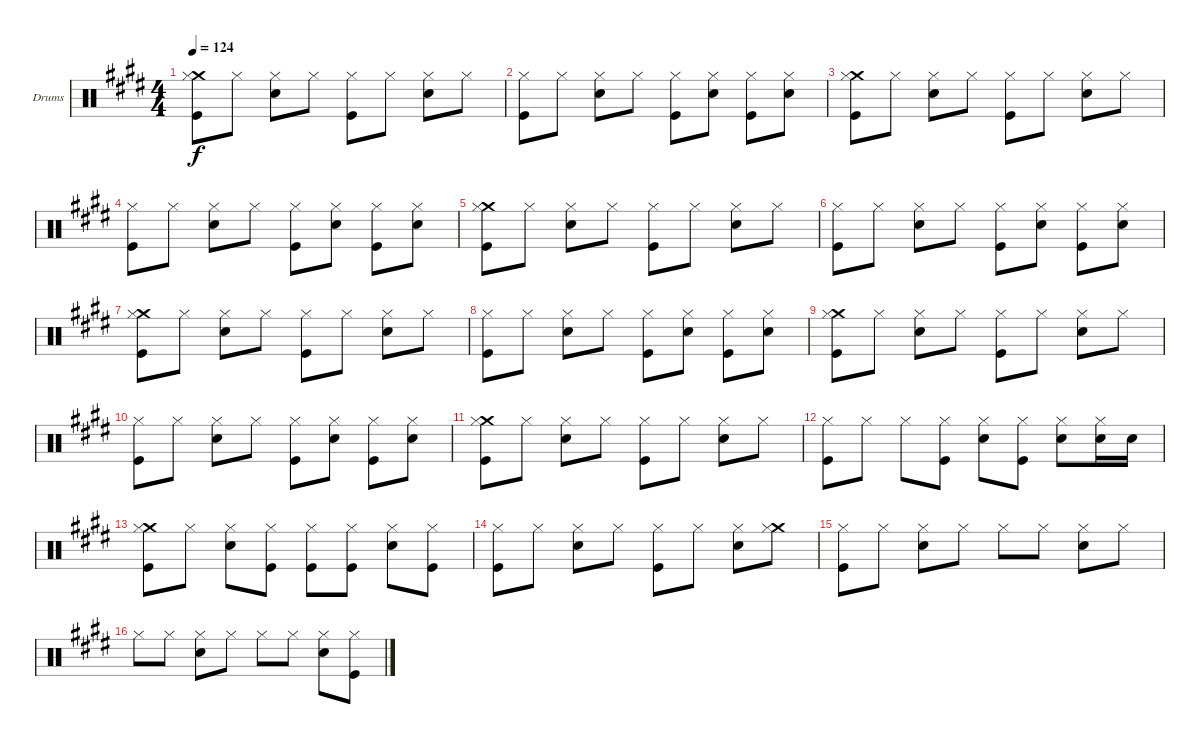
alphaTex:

\defaultSystemsLayout 4
\bracketExtendMode groupsimilarinstruments
\firstSystemTrackNameOrientation horizontal
\otherSystemsTrackNameOrientation horizontal
\track ("Drumkit" "Drums") {instrument percussion}
\staff {score}
\articulation defaults
\ts (4 4)
\tempo 124
\clef neutral
\scale
1.06557
\ks e
("Crash medium (hit)" "Hi-Hat (closed)" "Kick (hit)").8{dy f} "Hi-Hat (closed)".8 ("Hi-Hat (closed)" "Snare (hit) 2").8 "Hi-Hat (closed)".8 ("Hi-Hat (closed)" "Kick (hit)").8 "Hi-Hat (closed)".8 ("Hi-Hat (closed)" "Snare (hit) 2").8 "Hi-Hat (closed)".8 |
\scale
0.934426 ("Hi-Hat (closed)" "Kick (hit)").8 "Hi-Hat (closed)".8 ("Hi-Hat (closed)" "Snare (hit) 2").8 "Hi-Hat (closed)".8 ("Hi-Hat (closed)" "Kick (hit)").8 ("Hi-Hat (closed)" "Snare (hit) 2").8 ("Hi-Hat (closed)" "Kick (hit)").8 ("Hi-Hat (closed)" "Snare (hit) 2").8 |
\scale
1.06557 ("Crash medium (hit)" "Hi-Hat (closed)" "Kick (hit)").8 "Hi-Hat (closed)".8 ("Hi-Hat (closed)" "Snare (hit) 2").8 "Hi-Hat (closed)".8 ("Hi-Hat (closed)" "Kick (hit)").8 "Hi-Hat (closed)".8 ("Hi-Hat (closed)" "Snare (hit) 2").8 "Hi-Hat (closed)".8 |
\scale
0.934426 ("Hi-Hat (closed)" "Kick (hit)").8 "Hi-Hat (closed)".8 ("Hi-Hat (closed)" "Snare (hit) 2").8 "Hi-Hat (closed)".8 ("Hi-Hat (closed)" "Kick (hit)").8 ("Hi-Hat (closed)" "Snare (hit) 2").8 ("Hi-Hat (closed)" "Kick (hit)").8 ("Hi-Hat (closed)" "Snare (hit) 2").8 |
\scale
1.06557 ("Crash medium (hit)" "Hi-Hat (closed)" "Kick (hit)").8 "Hi-Hat (closed)".8 ("Hi-Hat (closed)" "Snare (hit) 2").8 "Hi-Hat (closed)".8 ("Hi-Hat (closed)" "Kick (hit)").8 "Hi-Hat (closed)".8 ("Hi-Hat (closed)" "Snare (hit) 2").8 "Hi-Hat (closed)".8 |
\scale
0.934426 ("Hi-Hat (closed)" "Kick (hit)").8 "Hi-Hat (closed)".8 ("Hi-Hat (closed)" "Snare (hit) 2").8 "Hi-Hat (closed)".8 ("Hi-Hat (closed)" "Kick (hit)").8 ("Hi-Hat (closed)" "Snare (hit) 2").8 ("Hi-Hat (closed)" "Kick (hit)").8 ("Hi-Hat (closed)" "Snare (hit) 2").8 |
\scale
1.06557 ("Crash medium (hit)" "Hi-Hat (closed)" "Kick (hit)").8 "Hi-Hat (closed)".8 ("Hi-Hat (closed)" "Snare (hit) 2").8 "Hi-Hat (closed)".8 ("Hi-Hat (closed)" "Kick (hit)").8 "Hi-Hat (closed)".8 ("Hi-Hat (closed)" "Snare (hit) 2").8 "Hi-Hat (closed)".8 |
\scale
0.934426 ("Hi-Hat (closed)" "Kick (hit)").8 "Hi-Hat (closed)".8 ("Hi-Hat (closed)" "Snare (hit) 2").8 "Hi-Hat (closed)".8 ("Hi-Hat (closed)" "Kick (hit)").8 ("Hi-Hat (closed)" "Snare (hit) 2").8 ("Hi-Hat (closed)" "Kick (hit)").8 ("Hi-Hat (closed)" "Snare (hit) 2").8 |
\scale
1.06557 ("Crash medium (hit)" "Hi-Hat (closed)" "Kick (hit)").8 "Hi-Hat (closed)".8 ("Hi-Hat (closed)" "Snare (hit) 2").8 "Hi-Hat (closed)".8 ("Hi-Hat (closed)" "Kick (hit)").8 "Hi-Hat (closed)".8 ("Hi-Hat (closed)" "Snare (hit) 2").8 "Hi-Hat (closed)".8 |
\scale
0.934426 ("Hi-Hat (closed)" "Kick (hit)").8 "Hi-Hat (closed)".8 ("Hi-Hat (closed)" "Snare (hit) 2").8 "Hi-Hat (closed)".8 ("Hi-Hat (closed)" "Kick (hit)").8 ("Hi-Hat (closed)" "Snare (hit) 2").8 ("Hi-Hat (closed)" "Kick (hit)").8 ("Hi-Hat (closed)" "Snare (hit) 2").8 |
\scale
1.06557 ("Crash medium (hit)" "Hi-Hat (closed)" "Kick (hit)").8 "Hi-Hat (closed)".8 ("Hi-Hat (closed)" "Snare (hit) 2").8 "Hi-Hat (closed)".8 ("Hi-Hat (closed)" "Kick (hit)").8 "Hi-Hat (closed)".8 ("Hi-Hat (closed)" "Snare (hit) 2").8 "Hi-Hat (closed)".8 |
\scale
0.934426 ("Hi-Hat (closed)" "Kick (hit)").8 "Hi-Hat (closed)".8 "Hi-Hat (closed)".8 ("Hi-Hat (closed)" "Kick (hit)").8 ("Hi-Hat (closed)" "Snare (hit) 2").8 ("Hi-Hat (closed)" "Kick (hit)").8 ("Hi-Hat (closed)" "Snare (hit) 2").8 ("Hi-Hat (closed)" "Snare (hit) 2").16 "Snare (hit) 2".16 |
\scale
1.06557 ("Crash medium (hit)" "Hi-Hat (closed)" "Kick (hit)").8 "Hi-Hat (closed)".8 ("Hi-Hat (closed)" "Snare (hit) 2").8 ("Hi-Hat (closed)" "Kick (hit)").8 ("Hi-Hat (closed)" "Kick (hit)").8 ("Hi-Hat (closed)" "Kick (hit)").8 ("Hi-Hat (closed)" "Snare (hit) 2").8 ("Hi-Hat (closed)" "Kick (hit)").8 |
\scale
0.934426 ("Hi-Hat (closed)" "Kick (hit)").8 "Hi-Hat (closed)".8 ("Hi-Hat (closed)" "Snare (hit) 2").8 "Hi-Hat (closed)".8 ("Hi-Hat (closed)" "Kick (hit)").8 "Hi-Hat (closed)".8 ("Hi-Hat (closed)" "Snare (hit) 2").8 ("Crash medium (hit)" "Hi-Hat (closed)").8 |
\scale
1.06557 ("Hi-Hat (closed)" "Kick (hit)").8 "Hi-Hat (closed)".8 ("Hi-Hat (closed)" "Snare (hit) 2").8 "Hi-Hat (closed)".8 "Hi-Hat (closed)".8 "Hi-Hat (closed)".8 ("Hi-Hat (closed)" "Snare (hit) 2").8 "Hi-Hat (closed)".8 |
\scale
0.934426 "Hi-Hat (closed)".8 "Hi-Hat (closed)".8 ("Hi-Hat (closed)" "Snare (hit) 2").8 "Hi-Hat (closed)".8 "Hi-Hat (closed)".8 "Hi-Hat (closed)".8 ("Hi-Hat (closed)" "Snare (hit) 2").8 ("Hi-Hat (closed)" "Kick (hit)").8
